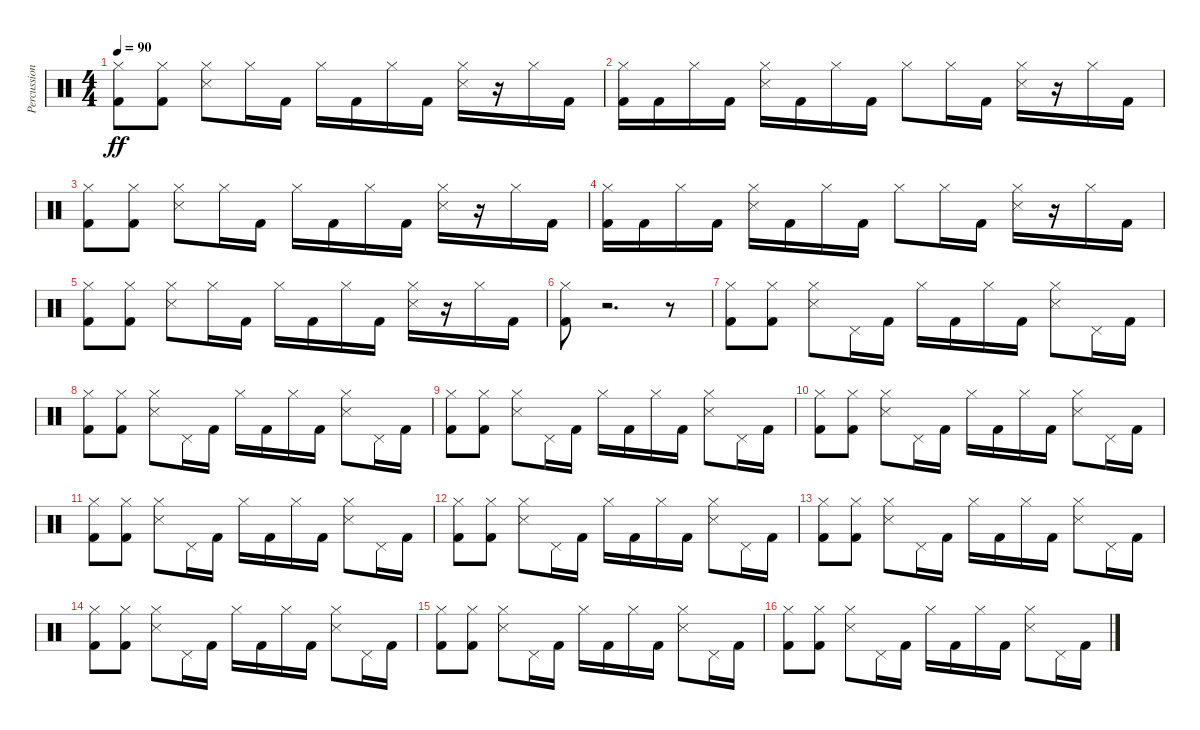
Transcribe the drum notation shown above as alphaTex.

\track ("Percussions" "Percussion") {instrument percussion}
\staff {score}
\articulation defaults
\ts (4 4)
\tempo 90
\clef neutral
\ks c
("Kick (hit) 2" "Hi-Hat (closed)").8{dy ff} ("Kick (hit) 2" "Hi-Hat (closed)").8 ("Snare (side stick) 3" "Hi-Hat (closed)").8 "Hi-Hat (closed)".16 "Kick (hit) 2".16 "Hi-Hat (closed)".16 "Kick (hit) 2".16 "Hi-Hat (closed)".16 "Kick (hit) 2".16 ("Snare (side stick) 3" "Hi-Hat (closed)").16 r.16 "Hi-Hat (closed)".16 "Kick (hit) 2".16 |
("Kick (hit) 2" "Hi-Hat (closed)").16 "Kick (hit) 2".16 "Hi-Hat (closed)".16 "Kick (hit) 2".16 ("Snare (side stick) 3" "Hi-Hat (closed)").16 "Kick (hit) 2".16 "Hi-Hat (closed)".16 "Kick (hit) 2".16 "Hi-Hat (closed)".8 "Hi-Hat (closed)".16 "Kick (hit) 2".16 ("Snare (side stick) 3" "Hi-Hat (closed)").16 r.16 "Hi-Hat (closed)".16 "Kick (hit) 2".16 |
("Kick (hit) 2" "Hi-Hat (closed)").8 ("Kick (hit) 2" "Hi-Hat (closed)").8 ("Snare (side stick) 3" "Hi-Hat (closed)").8 "Hi-Hat (closed)".16 "Kick (hit) 2".16 "Hi-Hat (closed)".16 "Kick (hit) 2".16 "Hi-Hat (closed)".16 "Kick (hit) 2".16 ("Snare (side stick) 3" "Hi-Hat (closed)").16 r.16 "Hi-Hat (closed)".16 "Kick (hit) 2".16 |
("Kick (hit) 2" "Hi-Hat (closed)").16 "Kick (hit) 2".16 "Hi-Hat (closed)".16 "Kick (hit) 2".16 ("Snare (side stick) 3" "Hi-Hat (closed)").16 "Kick (hit) 2".16 "Hi-Hat (closed)".16 "Kick (hit) 2".16 "Hi-Hat (closed)".8 "Hi-Hat (closed)".16 "Kick (hit) 2".16 ("Snare (side stick) 3" "Hi-Hat (closed)").16 r.16 "Hi-Hat (closed)".16 "Kick (hit) 2".16 |
("Kick (hit) 2" "Hi-Hat (closed)").8 ("Kick (hit) 2" "Hi-Hat (closed)").8 ("Snare (side stick) 3" "Hi-Hat (closed)").8 "Hi-Hat (closed)".16 "Kick (hit) 2".16 "Hi-Hat (closed)".16 "Kick (hit) 2".16 "Hi-Hat (closed)".16 "Kick (hit) 2".16 ("Snare (side stick) 3" "Hi-Hat (closed)").16 r.16 "Hi-Hat (closed)".16 "Kick (hit) 2".16 |
("Kick (hit) 2" "Hi-Hat (closed)").8 r.2{d} r.8 |
("Kick (hit) 2" "Hi-Hat (closed)").8 ("Kick (hit) 2" "Hi-Hat (closed)").8 ("Snare (side stick) 3" "Hi-Hat (closed)").8 "Pedal Hi-Hat (hit)".16 "Kick (hit) 2".16 "Hi-Hat (closed)".16 "Kick (hit) 2".16 "Hi-Hat (closed)".16 "Kick (hit) 2".16 ("Snare (side stick) 3" "Hi-Hat (closed)").8 "Pedal Hi-Hat (hit)".16 "Kick (hit) 2".16 |
("Kick (hit) 2" "Hi-Hat (closed)").8 ("Kick (hit) 2" "Hi-Hat (closed)").8 ("Snare (side stick) 3" "Hi-Hat (closed)").8 "Pedal Hi-Hat (hit)".16 "Kick (hit) 2".16 "Hi-Hat (closed)".16 "Kick (hit) 2".16 "Hi-Hat (closed)".16 "Kick (hit) 2".16 ("Snare (side stick) 3" "Hi-Hat (closed)").8 "Pedal Hi-Hat (hit)".16 "Kick (hit) 2".16 |
("Kick (hit) 2" "Hi-Hat (closed)").8 ("Kick (hit) 2" "Hi-Hat (closed)").8 ("Snare (side stick) 3" "Hi-Hat (closed)").8 "Pedal Hi-Hat (hit)".16 "Kick (hit) 2".16 "Hi-Hat (closed)".16 "Kick (hit) 2".16 "Hi-Hat (closed)".16 "Kick (hit) 2".16 ("Snare (side stick) 3" "Hi-Hat (closed)").8 "Pedal Hi-Hat (hit)".16 "Kick (hit) 2".16 |
("Kick (hit) 2" "Hi-Hat (closed)").8 ("Kick (hit) 2" "Hi-Hat (closed)").8 ("Snare (side stick) 3" "Hi-Hat (closed)").8 "Pedal Hi-Hat (hit)".16 "Kick (hit) 2".16 "Hi-Hat (closed)".16 "Kick (hit) 2".16 "Hi-Hat (closed)".16 "Kick (hit) 2".16 ("Snare (side stick) 3" "Hi-Hat (closed)").8 "Pedal Hi-Hat (hit)".16 "Kick (hit) 2".16 |
("Kick (hit) 2" "Hi-Hat (closed)").8 ("Kick (hit) 2" "Hi-Hat (closed)").8 ("Snare (side stick) 3" "Hi-Hat (closed)").8 "Pedal Hi-Hat (hit)".16 "Kick (hit) 2".16 "Hi-Hat (closed)".16 "Kick (hit) 2".16 "Hi-Hat (closed)".16 "Kick (hit) 2".16 ("Snare (side stick) 3" "Hi-Hat (closed)").8 "Pedal Hi-Hat (hit)".16 "Kick (hit) 2".16 |
("Kick (hit) 2" "Hi-Hat (closed)").8 ("Kick (hit) 2" "Hi-Hat (closed)").8 ("Snare (side stick) 3" "Hi-Hat (closed)").8 "Pedal Hi-Hat (hit)".16 "Kick (hit) 2".16 "Hi-Hat (closed)".16 "Kick (hit) 2".16 "Hi-Hat (closed)".16 "Kick (hit) 2".16 ("Snare (side stick) 3" "Hi-Hat (closed)").8 "Pedal Hi-Hat (hit)".16 "Kick (hit) 2".16 |
("Kick (hit) 2" "Hi-Hat (closed)").8 ("Kick (hit) 2" "Hi-Hat (closed)").8 ("Snare (side stick) 3" "Hi-Hat (closed)").8 "Pedal Hi-Hat (hit)".16 "Kick (hit) 2".16 "Hi-Hat (closed)".16 "Kick (hit) 2".16 "Hi-Hat (closed)".16 "Kick (hit) 2".16 ("Snare (side stick) 3" "Hi-Hat (closed)").8 "Pedal Hi-Hat (hit)".16 "Kick (hit) 2".16 |
("Kick (hit) 2" "Hi-Hat (closed)").8 ("Kick (hit) 2" "Hi-Hat (closed)").8 ("Snare (side stick) 3" "Hi-Hat (closed)").8 "Pedal Hi-Hat (hit)".16 "Kick (hit) 2".16 "Hi-Hat (closed)".16 "Kick (hit) 2".16 "Hi-Hat (closed)".16 "Kick (hit) 2".16 ("Snare (side stick) 3" "Hi-Hat (closed)").8 "Pedal Hi-Hat (hit)".16 "Kick (hit) 2".16 |
("Kick (hit) 2" "Hi-Hat (closed)").8 ("Kick (hit) 2" "Hi-Hat (closed)").8 ("Snare (side stick) 3" "Hi-Hat (closed)").8 "Pedal Hi-Hat (hit)".16 "Kick (hit) 2".16 "Hi-Hat (closed)".16 "Kick (hit) 2".16 "Hi-Hat (closed)".16 "Kick (hit) 2".16 ("Snare (side stick) 3" "Hi-Hat (closed)").8 "Pedal Hi-Hat (hit)".16 "Kick (hit) 2".16 |
("Kick (hit) 2" "Hi-Hat (closed)").8 ("Kick (hit) 2" "Hi-Hat (closed)").8 ("Snare (side stick) 3" "Hi-Hat (closed)").8 "Pedal Hi-Hat (hit)".16 "Kick (hit) 2".16 "Hi-Hat (closed)".16 "Kick (hit) 2".16 "Hi-Hat (closed)".16 "Kick (hit) 2".16 ("Snare (side stick) 3" "Hi-Hat (closed)").8 "Pedal Hi-Hat (hit)".16 "Kick (hit) 2".16
